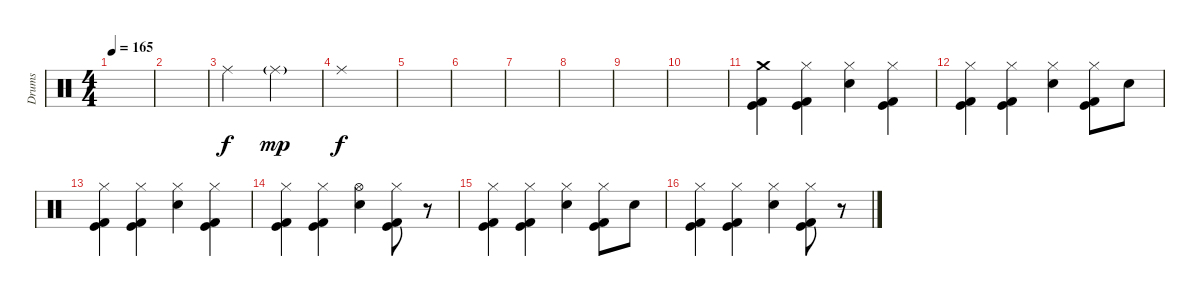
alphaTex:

\track ("Drums" "Drums") {instrument percussion}
\staff {score}
\articulation defaults
\ts (4 4)
\tempo 165
\clef neutral
\ks c
|
|
"Ride (middle)".2 "Ride (middle)"{g}.2{dy mp} |
"Ride (middle)".1{dy f} |
|
|
|
|
|
|
("Crash medium (hit)" "Kick (hit)" "Kick (hit) 2").4 ("Hi-Hat (closed)" "Kick (hit)" "Kick (hit) 2").4 ("Hi-Hat (closed)" "Electric Snare (hit)").4 ("Hi-Hat (closed)" "Kick (hit)" "Kick (hit) 2").4 |
("Hi-Hat (closed)" "Kick (hit)" "Kick (hit) 2").4 ("Hi-Hat (closed)" "Kick (hit)" "Kick (hit) 2").4 ("Hi-Hat (closed)" "Electric Snare (hit)").4 ("Hi-Hat (closed)" "Kick (hit) 2" "Kick (hit)").8 "Electric Snare (hit)".8 |
("Hi-Hat (closed)" "Kick (hit)" "Kick (hit) 2").4 ("Hi-Hat (closed)" "Kick (hit)" "Kick (hit) 2").4 ("Hi-Hat (closed)" "Electric Snare (hit)").4 ("Hi-Hat (closed)" "Kick (hit)" "Kick (hit) 2").4 |
("Hi-Hat (closed)" "Kick (hit)" "Kick (hit) 2").4 ("Hi-Hat (closed)" "Kick (hit)" "Kick (hit) 2").4 ("Hi-Hat (open)" "Electric Snare (hit)").4 ("Hi-Hat (closed)" "Kick (hit) 2" "Kick (hit)").8 r.8 |
("Hi-Hat (closed)" "Kick (hit)" "Kick (hit) 2").4 ("Hi-Hat (closed)" "Kick (hit)" "Kick (hit) 2").4 ("Hi-Hat (closed)" "Electric Snare (hit)").4 ("Hi-Hat (closed)" "Kick (hit) 2" "Kick (hit)").8 "Electric Snare (hit)".8 |
("Hi-Hat (closed)" "Kick (hit)" "Kick (hit) 2").4 ("Hi-Hat (closed)" "Kick (hit)" "Kick (hit) 2").4 ("Hi-Hat (closed)" "Electric Snare (hit)").4 ("Hi-Hat (closed)" "Kick (hit) 2" "Kick (hit)").8 r.8
